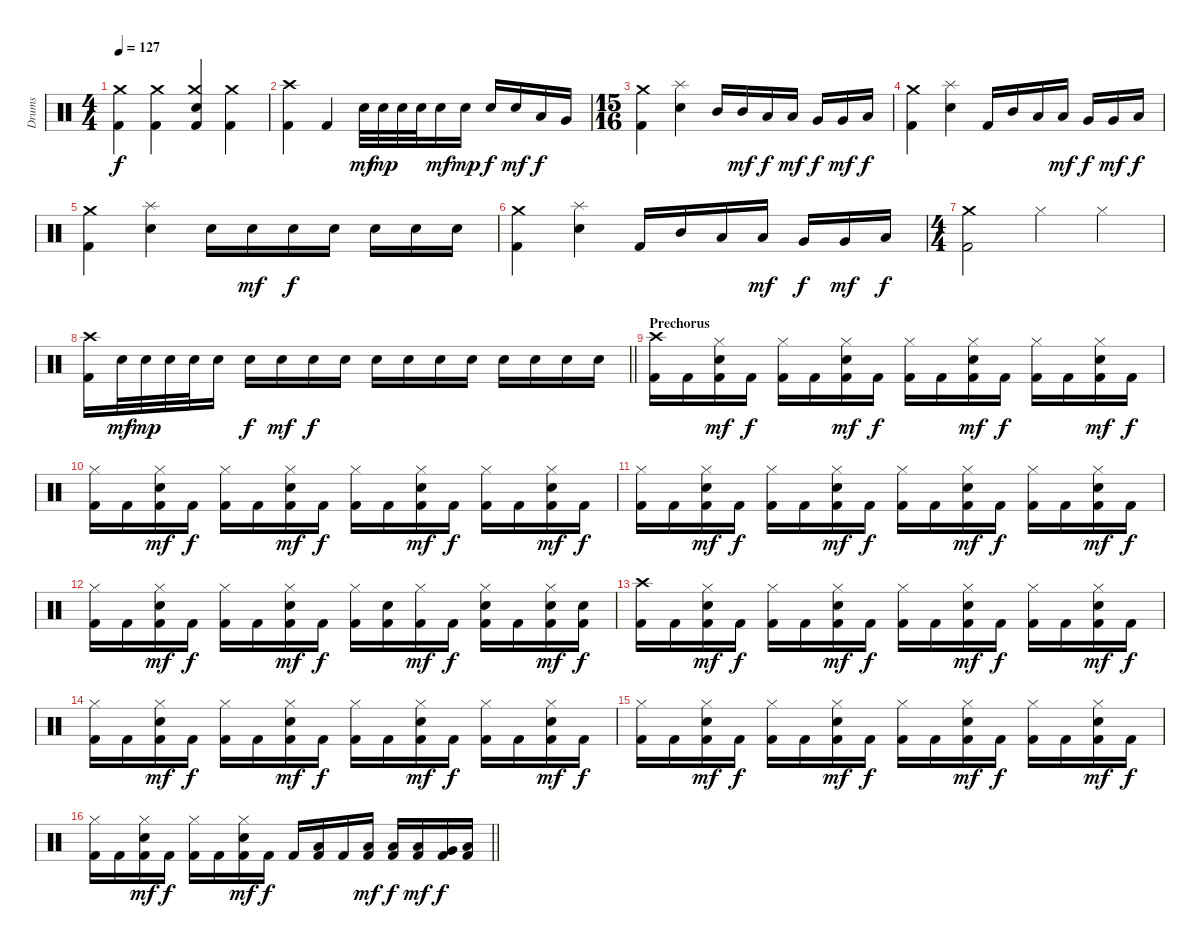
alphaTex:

\track ("Drums" "Drums") {instrument percussion}
\staff {score}
\articulation defaults
\ts (4 4)
\tempo 127
\clef neutral
\ks c
("Kick (hit) 2" "Crash medium (hit)").4{dy f} ("Kick (hit) 2" "Crash medium (hit)").4 ("Kick (hit) 2" "Crash medium (hit)" "Electric Snare (hit)").4 ("Kick (hit) 2" "Crash medium (hit)").4 |
("Kick (hit) 2" "Crash high (hit)").4 "Kick (hit) 2".4 "Electric Snare (hit)".32{dy mf} "Electric Snare (hit)".32{dy mp} "Electric Snare (hit)".32 "Electric Snare (hit)".32 "Electric Snare (hit)".16{dy mf} "Electric Snare (hit)".16{dy mp} "Electric Snare (hit)".16{dy f} "Electric Snare (hit)".16{dy mf} "Low Tom (hit)".16{dy f} "Very Low Tom (hit)".16 |
\ts (15 16)
("Kick (hit) 2" "Crash medium (hit)").4 ("Splash (hit)" "Electric Snare (hit)").4 "Mid Tom (hit)".16 "Mid Tom (hit)".16{dy mf} "Low Tom (hit)".16{dy f} "Low Tom (hit)".16{dy mf} "Very Low Tom (hit)".16{dy f} "Very Low Tom (hit)".16{dy mf} "Low Floor Tom (hit)".16{dy f} |
("Kick (hit) 2" "Crash medium (hit)").4 ("Splash (hit)" "Electric Snare (hit)").4 "Kick (hit) 2".16 "Mid Tom (hit)".16 "Low Tom (hit)".16 "Low Tom (hit)".16{dy mf} "Very Low Tom (hit)".16{dy f} "Very Low Tom (hit)".16{dy mf} "Low Floor Tom (hit)".16{dy f} |
("Kick (hit) 2" "Crash medium (hit)").4 ("Splash (hit)" "Electric Snare (hit)").4 "Electric Snare (hit)".16 "Electric Snare (hit)".16{dy mf} "Electric Snare (hit)".16{dy f} "Electric Snare (hit)".16 "Electric Snare (hit)".16 "Electric Snare (hit)".16 "Electric Snare (hit)".16 |
("Kick (hit) 2" "Crash medium (hit)").4 ("Splash (hit)" "Electric Snare (hit)").4 "Kick (hit) 2".16 "Mid Tom (hit)".16 "Low Tom (hit)".16 "Low Tom (hit)".16{dy mf} "Very Low Tom (hit)".16{dy f} "Very Low Tom (hit)".16{dy mf} "Low Floor Tom (hit)".16{dy f} |
\ts (4 4)
("Kick (hit) 2" "Crash medium (hit)").2 "Hi-Hat (closed)".4 "Hi-Hat (closed)".4 |
\barLineRight lightlight
("Kick (hit) 2" "Crash high (hit)").16 "Electric Snare (hit)".32{dy mf} "Electric Snare (hit)".32{dy mp} "Electric Snare (hit)".32 "Electric Snare (hit)".32 "Electric Snare (hit)".16 "Electric Snare (hit)".16{dy f} "Electric Snare (hit)".16{dy mf} "Electric Snare (hit)".16{dy f} "Electric Snare (hit)".16 "Electric Snare (hit)".16 "Electric Snare (hit)".16 "Electric Snare (hit)".16 "Electric Snare (hit)".16 "Electric Snare (hit)".16 "Electric Snare (hit)".16 "Electric Snare (hit)".16 "Electric Snare (hit)".16 |
\section ("" "Prechorus")
("Kick (hit) 2" "Crash high (hit)").16 "Kick (hit) 2".16 ("Kick (hit) 2" "Hi-Hat (closed)" "Electric Snare (hit)").16{dy mf} "Kick (hit) 2".16{dy f} ("Kick (hit) 2" "Hi-Hat (closed)").16 "Kick (hit) 2".16 ("Kick (hit) 2" "Hi-Hat (closed)" "Electric Snare (hit)").16{dy mf} "Kick (hit) 2".16{dy f} ("Kick (hit) 2" "Hi-Hat (closed)").16 "Kick (hit) 2".16 ("Kick (hit) 2" "Hi-Hat (closed)" "Electric Snare (hit)").16{dy mf} "Kick (hit) 2".16{dy f} ("Kick (hit) 2" "Hi-Hat (closed)").16 "Kick (hit) 2".16 ("Kick (hit) 2" "Hi-Hat (closed)" "Electric Snare (hit)").16{dy mf} "Kick (hit) 2".16{dy f} |
("Kick (hit) 2" "Hi-Hat (closed)").16 "Kick (hit) 2".16 ("Kick (hit) 2" "Hi-Hat (closed)" "Electric Snare (hit)").16{dy mf} "Kick (hit) 2".16{dy f} ("Kick (hit) 2" "Hi-Hat (closed)").16 "Kick (hit) 2".16 ("Kick (hit) 2" "Hi-Hat (closed)" "Electric Snare (hit)").16{dy mf} "Kick (hit) 2".16{dy f} ("Kick (hit) 2" "Hi-Hat (closed)").16 "Kick (hit) 2".16 ("Kick (hit) 2" "Hi-Hat (closed)" "Electric Snare (hit)").16{dy mf} "Kick (hit) 2".16{dy f} ("Kick (hit) 2" "Hi-Hat (closed)").16 "Kick (hit) 2".16 ("Kick (hit) 2" "Hi-Hat (closed)" "Electric Snare (hit)").16{dy mf} "Kick (hit) 2".16{dy f} |
("Kick (hit) 2" "Hi-Hat (closed)").16 "Kick (hit) 2".16 ("Kick (hit) 2" "Hi-Hat (closed)" "Electric Snare (hit)").16{dy mf} "Kick (hit) 2".16{dy f} ("Kick (hit) 2" "Hi-Hat (closed)").16 "Kick (hit) 2".16 ("Kick (hit) 2" "Hi-Hat (closed)" "Electric Snare (hit)").16{dy mf} "Kick (hit) 2".16{dy f} ("Kick (hit) 2" "Hi-Hat (closed)").16 "Kick (hit) 2".16 ("Kick (hit) 2" "Hi-Hat (closed)" "Electric Snare (hit)").16{dy mf} "Kick (hit) 2".16{dy f} ("Kick (hit) 2" "Hi-Hat (closed)").16 "Kick (hit) 2".16 ("Kick (hit) 2" "Hi-Hat (closed)" "Electric Snare (hit)").16{dy mf} "Kick (hit) 2".16{dy f} |
("Kick (hit) 2" "Hi-Hat (closed)").16 "Kick (hit) 2".16 ("Kick (hit) 2" "Hi-Hat (closed)" "Electric Snare (hit)").16{dy mf} "Kick (hit) 2".16{dy f} ("Kick (hit) 2" "Hi-Hat (closed)").16 "Kick (hit) 2".16 ("Kick (hit) 2" "Hi-Hat (closed)" "Electric Snare (hit)").16{dy mf} "Kick (hit) 2".16{dy f} ("Kick (hit) 2" "Hi-Hat (closed)").16 ("Kick (hit) 2" "Electric Snare (hit)").16 ("Kick (hit) 2" "Hi-Hat (closed)").16{dy mf} "Kick (hit) 2".16{dy f} ("Kick (hit) 2" "Hi-Hat (closed)" "Electric Snare (hit)").16 "Kick (hit) 2".16 ("Kick (hit) 2" "Hi-Hat (closed)" "Electric Snare (hit)").16{dy mf} ("Kick (hit) 2" "Electric Snare (hit)").16{dy f} |
("Kick (hit) 2" "Crash high (hit)").16 "Kick (hit) 2".16 ("Kick (hit) 2" "Hi-Hat (closed)" "Electric Snare (hit)").16{dy mf} "Kick (hit) 2".16{dy f} ("Kick (hit) 2" "Hi-Hat (closed)").16 "Kick (hit) 2".16 ("Kick (hit) 2" "Hi-Hat (closed)" "Electric Snare (hit)").16{dy mf} "Kick (hit) 2".16{dy f} ("Kick (hit) 2" "Hi-Hat (closed)").16 "Kick (hit) 2".16 ("Kick (hit) 2" "Hi-Hat (closed)" "Electric Snare (hit)").16{dy mf} "Kick (hit) 2".16{dy f} ("Kick (hit) 2" "Hi-Hat (closed)").16 "Kick (hit) 2".16 ("Kick (hit) 2" "Hi-Hat (closed)" "Electric Snare (hit)").16{dy mf} "Kick (hit) 2".16{dy f} |
("Kick (hit) 2" "Hi-Hat (closed)").16 "Kick (hit) 2".16 ("Kick (hit) 2" "Hi-Hat (closed)" "Electric Snare (hit)").16{dy mf} "Kick (hit) 2".16{dy f} ("Kick (hit) 2" "Hi-Hat (closed)").16 "Kick (hit) 2".16 ("Kick (hit) 2" "Hi-Hat (closed)" "Electric Snare (hit)").16{dy mf} "Kick (hit) 2".16{dy f} ("Kick (hit) 2" "Hi-Hat (closed)").16 "Kick (hit) 2".16 ("Kick (hit) 2" "Hi-Hat (closed)" "Electric Snare (hit)").16{dy mf} "Kick (hit) 2".16{dy f} ("Kick (hit) 2" "Hi-Hat (closed)").16 "Kick (hit) 2".16 ("Kick (hit) 2" "Hi-Hat (closed)" "Electric Snare (hit)").16{dy mf} "Kick (hit) 2".16{dy f} |
("Kick (hit) 2" "Hi-Hat (closed)").16 "Kick (hit) 2".16 ("Kick (hit) 2" "Hi-Hat (closed)" "Electric Snare (hit)").16{dy mf} "Kick (hit) 2".16{dy f} ("Kick (hit) 2" "Hi-Hat (closed)").16 "Kick (hit) 2".16 ("Kick (hit) 2" "Hi-Hat (closed)" "Electric Snare (hit)").16{dy mf} "Kick (hit) 2".16{dy f} ("Kick (hit) 2" "Hi-Hat (closed)").16 "Kick (hit) 2".16 ("Kick (hit) 2" "Hi-Hat (closed)" "Electric Snare (hit)").16{dy mf} "Kick (hit) 2".16{dy f} ("Kick (hit) 2" "Hi-Hat (closed)").16 "Kick (hit) 2".16 ("Kick (hit) 2" "Hi-Hat (closed)" "Electric Snare (hit)").16{dy mf} "Kick (hit) 2".16{dy f} |
\barLineRight lightlight
("Kick (hit) 2" "Hi-Hat (closed)").16 "Kick (hit) 2".16 ("Kick (hit) 2" "Hi-Hat (closed)" "Electric Snare (hit)").16{dy mf} "Kick (hit) 2".16{dy f} ("Kick (hit) 2" "Hi-Hat (closed)").16 "Kick (hit) 2".16 ("Kick (hit) 2" "Hi-Hat (closed)" "Electric Snare (hit)").16{dy mf} "Kick (hit) 2".16{dy f} "Kick (hit) 2".16 ("Kick (hit) 2" "Low Tom (hit)").16 "Kick (hit) 2".16 ("Kick (hit) 2" "Low Tom (hit)").16{dy mf} ("Kick (hit) 2" "Low Tom (hit)").16{dy f} ("Kick (hit) 2" "Low Tom (hit)").16{dy mf} ("Kick (hit) 2" "Very Low Tom (hit)").16{dy f} ("Kick (hit) 2" "Low Floor Tom (hit)").16
